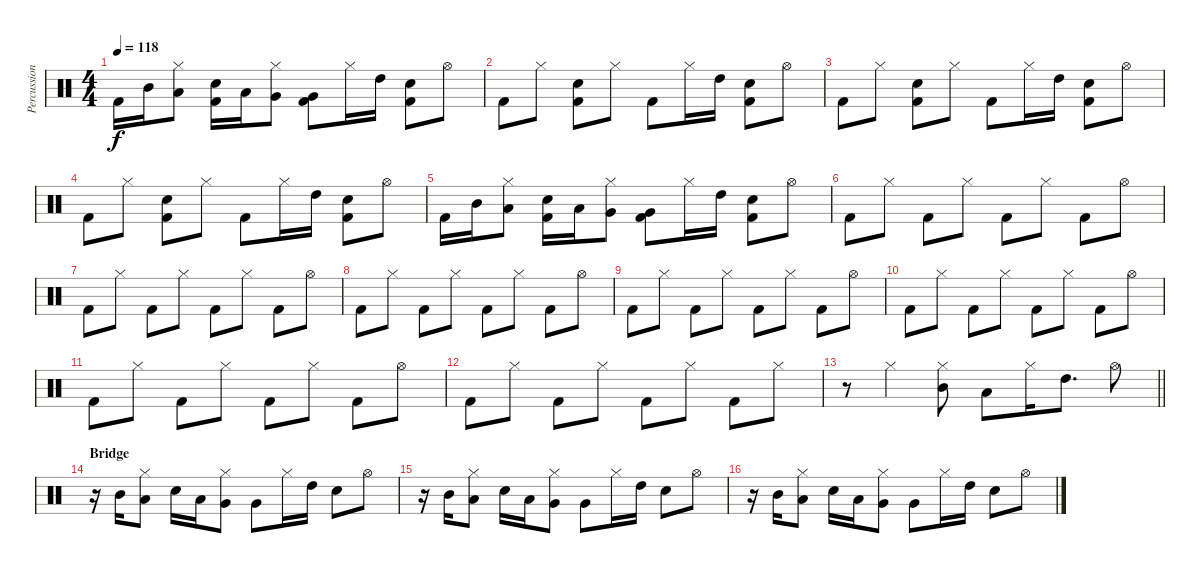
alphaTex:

\track ("Percussion" "Percussion") {instrument percussion}
\staff {score}
\articulation defaults
\ts (4 4)
\tempo 118
\clef neutral
\ks c "Kick (hit) 2".16{dy f} "Mid Tom (hit)".16
("Hi-Hat (closed)" "Low Tom (hit)").8 ("Hand Clap (hit)" "Kick (hit) 2").16 "Low Tom (hit)".16 ("Hi-Hat (closed)" "Very Low Tom (hit)").8 ("Very Low Tom (hit)" "Kick (hit) 2").8 "Hi-Hat (closed)".16 "High Tom (hit)".16 ("Hand Clap (hit)" "Kick (hit) 2").8 "Hi-Hat (open)".8 |
"Kick (hit) 2".8 "Hi-Hat (closed)".8 ("Hand Clap (hit)" "Kick (hit) 2").8 "Hi-Hat (closed)".8 "Kick (hit) 2".8 "Hi-Hat (closed)".16 "High Tom (hit)".16 ("Hand Clap (hit)" "Kick (hit) 2").8 "Hi-Hat (open)".8 |
"Kick (hit) 2".8 "Hi-Hat (closed)".8 ("Hand Clap (hit)" "Kick (hit) 2").8 "Hi-Hat (closed)".8 "Kick (hit) 2".8 "Hi-Hat (closed)".16 "High Tom (hit)".16 ("Hand Clap (hit)" "Kick (hit) 2").8 "Hi-Hat (open)".8 |
"Kick (hit) 2".8 "Hi-Hat (closed)".8 ("Hand Clap (hit)" "Kick (hit) 2").8 "Hi-Hat (closed)".8 "Kick (hit) 2".8 "Hi-Hat (closed)".16 "High Tom (hit)".16 ("Hand Clap (hit)" "Kick (hit) 2").8 "Hi-Hat (open)".8 |
"Kick (hit) 2".16 "Mid Tom (hit)".16 ("Hi-Hat (closed)" "Low Tom (hit)").8 ("Hand Clap (hit)" "Kick (hit) 2").16 "Low Tom (hit)".16 ("Hi-Hat (closed)" "Very Low Tom (hit)").8 ("Very Low Tom (hit)" "Kick (hit) 2").8 "Hi-Hat (closed)".16 "High Tom (hit)".16 ("Hand Clap (hit)" "Kick (hit) 2").8 "Hi-Hat (open)".8 |
"Kick (hit) 2".8 "Hi-Hat (closed)".8 "Kick (hit) 2".8 "Hi-Hat (closed)".8 "Kick (hit) 2".8 "Hi-Hat (closed)".8 "Kick (hit) 2".8 "Hi-Hat (open)".8 |
"Kick (hit) 2".8 "Hi-Hat (closed)".8 "Kick (hit) 2".8 "Hi-Hat (closed)".8 "Kick (hit) 2".8 "Hi-Hat (closed)".8 "Kick (hit) 2".8 "Hi-Hat (open)".8 |
"Kick (hit) 2".8 "Hi-Hat (closed)".8 "Kick (hit) 2".8 "Hi-Hat (closed)".8 "Kick (hit) 2".8 "Hi-Hat (closed)".8 "Kick (hit) 2".8 "Hi-Hat (open)".8 |
"Kick (hit) 2".8 "Hi-Hat (closed)".8 "Kick (hit) 2".8 "Hi-Hat (closed)".8 "Kick (hit) 2".8 "Hi-Hat (closed)".8 "Kick (hit) 2".8 "Hi-Hat (open)".8 |
"Kick (hit) 2".8 "Hi-Hat (closed)".8 "Kick (hit) 2".8 "Hi-Hat (closed)".8 "Kick (hit) 2".8 "Hi-Hat (closed)".8 "Kick (hit) 2".8 "Hi-Hat (open)".8 |
"Kick (hit) 2".8 "Hi-Hat (closed)".8 "Kick (hit) 2".8 "Hi-Hat (closed)".8 "Kick (hit) 2".8 "Hi-Hat (closed)".8 "Kick (hit) 2".8 "Hi-Hat (open)".8 |
"Kick (hit) 2".8 "Hi-Hat (closed)".8 "Kick (hit) 2".8 "Hi-Hat (closed)".8 "Kick (hit) 2".8 "Hi-Hat (closed)".8 "Kick (hit) 2".8 "Hi-Hat (closed)".8 |
\barLineRight lightlight
r.8 "Hi-Hat (closed)".4 ("Hi-Hat (closed)" "Mid Tom (hit)").8 "Low Tom (hit)".8 "Hi-Hat (closed)".16 "High Tom (hit)".8{d} "Hi-Hat (open)".8 |
\section ("" "Bridge")
r.16 "Mid Tom (hit)".16 ("Hi-Hat (closed)" "Low Tom (hit)").8 "Hand Clap (hit)".16 "Low Tom (hit)".16 ("Hi-Hat (closed)" "Very Low Tom (hit)").8 "Very Low Tom (hit)".8 "Hi-Hat (closed)".16 "High Tom (hit)".16 "Hand Clap (hit)".8 "Hi-Hat (open)".8 |
r.16 "Mid Tom (hit)".16 ("Hi-Hat (closed)" "Low Tom (hit)").8 "Hand Clap (hit)".16 "Low Tom (hit)".16 ("Hi-Hat (closed)" "Very Low Tom (hit)").8 "Very Low Tom (hit)".8 "Hi-Hat (closed)".16 "High Tom (hit)".16 "Hand Clap (hit)".8 "Hi-Hat (open)".8 |
r.16 "Mid Tom (hit)".16 ("Hi-Hat (closed)" "Low Tom (hit)").8 "Hand Clap (hit)".16 "Low Tom (hit)".16 ("Hi-Hat (closed)" "Very Low Tom (hit)").8 "Very Low Tom (hit)".8 "Hi-Hat (closed)".16 "High Tom (hit)".16 "Hand Clap (hit)".8 "Hi-Hat (open)".8
